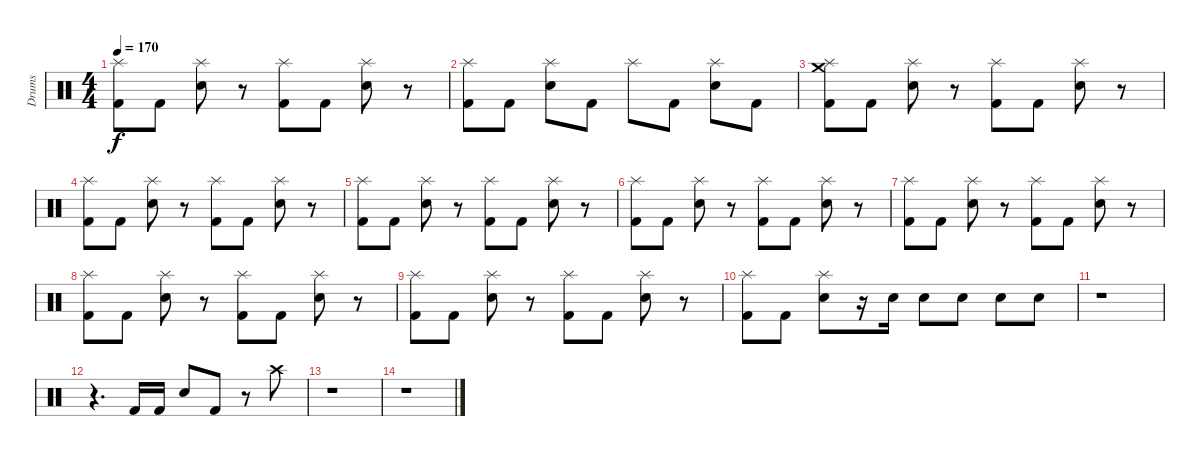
\track ("Drums" "Drums") {instrument percussion}
\staff {score}
\articulation defaults
\ts (4 4)
\tempo 170
\clef neutral
\ks c
("Splash (hit)" "Kick (hit) 2").8{dy f} "Kick (hit) 2".8 ("Splash (hit)" "Electric Snare (hit)").8 r.8 ("Splash (hit)" "Kick (hit) 2").8 "Kick (hit) 2".8 ("Splash (hit)" "Electric Snare (hit)").8 r.8 |
("Splash (hit)" "Kick (hit) 2").8 "Kick (hit) 2".8 ("Splash (hit)" "Electric Snare (hit)").8 "Kick (hit) 2".8 "Splash (hit)".8 "Kick (hit) 2".8 ("Splash (hit)" "Electric Snare (hit)").8 "Kick (hit) 2".8 |
("Crash medium (hit)" "Splash (hit)" "Kick (hit) 2").8 "Kick (hit) 2".8 ("Splash (hit)" "Electric Snare (hit)").8 r.8 ("Splash (hit)" "Kick (hit) 2").8 "Kick (hit) 2".8 ("Splash (hit)" "Electric Snare (hit)").8 r.8 |
("Splash (hit)" "Kick (hit) 2").8 "Kick (hit) 2".8 ("Splash (hit)" "Electric Snare (hit)").8 r.8 ("Splash (hit)" "Kick (hit) 2").8 "Kick (hit) 2".8 ("Splash (hit)" "Electric Snare (hit)").8 r.8 |
("Splash (hit)" "Kick (hit) 2").8 "Kick (hit) 2".8 ("Splash (hit)" "Electric Snare (hit)").8 r.8 ("Splash (hit)" "Kick (hit) 2").8 "Kick (hit) 2".8 ("Splash (hit)" "Electric Snare (hit)").8 r.8 |
("Splash (hit)" "Kick (hit) 2").8 "Kick (hit) 2".8 ("Splash (hit)" "Electric Snare (hit)").8 r.8 ("Splash (hit)" "Kick (hit) 2").8 "Kick (hit) 2".8 ("Splash (hit)" "Electric Snare (hit)").8 r.8 |
("Splash (hit)" "Kick (hit) 2").8 "Kick (hit) 2".8 ("Splash (hit)" "Electric Snare (hit)").8 r.8 ("Splash (hit)" "Kick (hit) 2").8 "Kick (hit) 2".8 ("Splash (hit)" "Electric Snare (hit)").8 r.8 |
("Splash (hit)" "Kick (hit) 2").8 "Kick (hit) 2".8 ("Splash (hit)" "Electric Snare (hit)").8 r.8 ("Splash (hit)" "Kick (hit) 2").8 "Kick (hit) 2".8 ("Splash (hit)" "Electric Snare (hit)").8 r.8 |
("Splash (hit)" "Kick (hit) 2").8 "Kick (hit) 2".8 ("Splash (hit)" "Electric Snare (hit)").8 r.8 ("Splash (hit)" "Kick (hit) 2").8 "Kick (hit) 2".8 ("Splash (hit)" "Electric Snare (hit)").8 r.8 |
("Splash (hit)" "Kick (hit) 2").8 "Kick (hit) 2".8 ("Splash (hit)" "Electric Snare (hit)").8 r.16 "Electric Snare (hit)".16 "Electric Snare (hit)".8 "Electric Snare (hit)".8 "Electric Snare (hit)".8 "Electric Snare (hit)".8 |
r.1 |
r.4{d} "Kick (hit) 2".16 "Kick (hit) 2".16 "Electric Snare (hit)".8 "Kick (hit) 2".8 r.8 "Crash high (hit)".8 |
r.1 |
r.1
